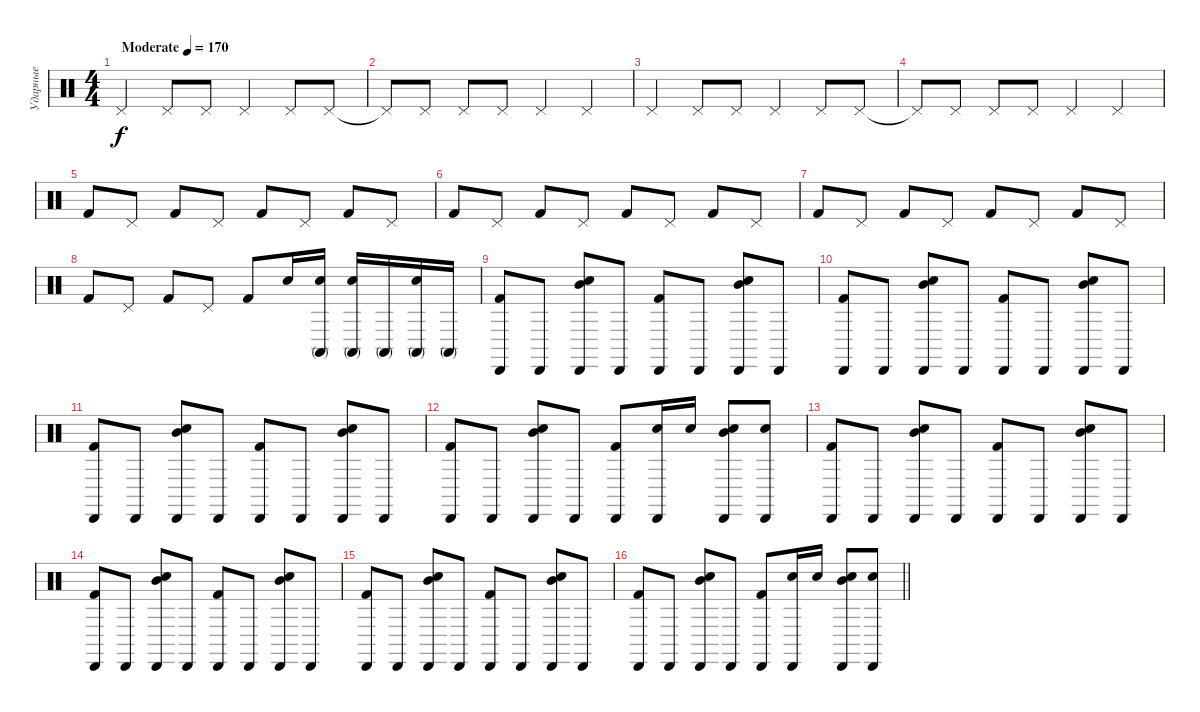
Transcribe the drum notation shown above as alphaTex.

\track ("Ударные" "Ударные") {instrument percussion}
\staff {score}
\articulation defaults
\ts (4 4)
\tempo (170 "Moderate")
\clef neutral
\ks c "Pedal Hi-Hat (hit)".4{dy f} "Pedal Hi-Hat (hit)".8 "Pedal Hi-Hat (hit)".8 "Pedal Hi-Hat (hit)".4 "Pedal Hi-Hat (hit)".8 "Pedal Hi-Hat (hit)".8
|
"Pedal Hi-Hat (hit)"{t}.8 "Pedal Hi-Hat (hit)".8 "Pedal Hi-Hat (hit)".8 "Pedal Hi-Hat (hit)".8 "Pedal Hi-Hat (hit)".4 "Pedal Hi-Hat (hit)".4 |
"Pedal Hi-Hat (hit)".4 "Pedal Hi-Hat (hit)".8 "Pedal Hi-Hat (hit)".8 "Pedal Hi-Hat (hit)".4 "Pedal Hi-Hat (hit)".8 "Pedal Hi-Hat (hit)".8 |
"Pedal Hi-Hat (hit)"{t}.8 "Pedal Hi-Hat (hit)".8 "Pedal Hi-Hat (hit)".8 "Pedal Hi-Hat (hit)".8 "Pedal Hi-Hat (hit)".4 "Pedal Hi-Hat (hit)".4 |
"Kick (hit) 2".8 "Pedal Hi-Hat (hit)".8 "Kick (hit) 2".8 "Pedal Hi-Hat (hit)".8 "Kick (hit) 2".8 "Pedal Hi-Hat (hit)".8 "Kick (hit) 2".8 "Pedal Hi-Hat (hit)".8 |
"Kick (hit) 2".8 "Pedal Hi-Hat (hit)".8 "Kick (hit) 2".8 "Pedal Hi-Hat (hit)".8 "Kick (hit) 2".8 "Pedal Hi-Hat (hit)".8 "Kick (hit) 2".8 "Pedal Hi-Hat (hit)".8 |
"Kick (hit) 2".8 "Pedal Hi-Hat (hit)".8 "Kick (hit) 2".8 "Pedal Hi-Hat (hit)".8 "Kick (hit) 2".8 "Pedal Hi-Hat (hit)".8 "Kick (hit) 2".8 "Pedal Hi-Hat (hit)".8 |
"Kick (hit) 2".8 "Pedal Hi-Hat (hit)".8 "Kick (hit) 2".8 "Pedal Hi-Hat (hit)".8 "Kick (hit) 2".8 "Electric Snare (hit)".16 ("Electric Snare (hit)" "Conga high (mute)").16 ("Electric Snare (hit)" "Conga high (mute)").16 "Conga high (mute)".16 ("Electric Snare (hit)" "Conga high (mute)").16 "Conga high (mute)".16 |
("Kick (hit) 2" "Cabasa (hit)").8 "Cabasa (hit)".8 ("Electric Snare (hit)" "Mid Tom (hit)" "Cabasa (hit)").8 "Cabasa (hit)".8 ("Cabasa (hit)" "Kick (hit) 2").8 "Cabasa (hit)".8 ("Cabasa (hit)" "Electric Snare (hit)" "Mid Tom (hit)").8 "Cabasa (hit)".8 |
("Cabasa (hit)" "Kick (hit) 2").8 "Cabasa (hit)".8 ("Electric Snare (hit)" "Cabasa (hit)" "Mid Tom (hit)").8 "Cabasa (hit)".8 ("Cabasa (hit)" "Kick (hit) 2").8 "Cabasa (hit)".8 ("Mid Tom (hit)" "Electric Snare (hit)" "Cabasa (hit)").8 "Cabasa (hit)".8 |
("Kick (hit) 2" "Cabasa (hit)").8 "Cabasa (hit)".8 ("Electric Snare (hit)" "Mid Tom (hit)" "Cabasa (hit)").8 "Cabasa (hit)".8 ("Cabasa (hit)" "Kick (hit) 2").8 "Cabasa (hit)".8 ("Cabasa (hit)" "Electric Snare (hit)" "Mid Tom (hit)").8 "Cabasa (hit)".8 |
("Cabasa (hit)" "Kick (hit) 2").8 "Cabasa (hit)".8 ("Electric Snare (hit)" "Cabasa (hit)" "Mid Tom (hit)").8 "Cabasa (hit)".8 ("Cabasa (hit)" "Kick (hit) 2").8 ("Electric Snare (hit)" "Cabasa (hit)").16 "Electric Snare (hit)".16 ("Electric Snare (hit)" "Mid Tom (hit)" "Cabasa (hit)").8 ("Electric Snare (hit)" "Cabasa (hit)").8 |
("Kick (hit) 2" "Cabasa (hit)").8 "Cabasa (hit)".8 ("Electric Snare (hit)" "Mid Tom (hit)" "Cabasa (hit)").8 "Cabasa (hit)".8 ("Cabasa (hit)" "Kick (hit) 2").8 "Cabasa (hit)".8 ("Cabasa (hit)" "Electric Snare (hit)" "Mid Tom (hit)").8 "Cabasa (hit)".8 |
("Cabasa (hit)" "Kick (hit) 2").8 "Cabasa (hit)".8 ("Electric Snare (hit)" "Cabasa (hit)" "Mid Tom (hit)").8 "Cabasa (hit)".8 ("Cabasa (hit)" "Kick (hit) 2").8 "Cabasa (hit)".8 ("Mid Tom (hit)" "Electric Snare (hit)" "Cabasa (hit)").8 "Cabasa (hit)".8 |
("Kick (hit) 2" "Cabasa (hit)").8 "Cabasa (hit)".8 ("Electric Snare (hit)" "Mid Tom (hit)" "Cabasa (hit)").8 "Cabasa (hit)".8 ("Cabasa (hit)" "Kick (hit) 2").8 "Cabasa (hit)".8 ("Cabasa (hit)" "Electric Snare (hit)" "Mid Tom (hit)").8 "Cabasa (hit)".8 |
\barLineRight lightlight
("Cabasa (hit)" "Kick (hit) 2").8 "Cabasa (hit)".8 ("Electric Snare (hit)" "Cabasa (hit)" "Mid Tom (hit)").8 "Cabasa (hit)".8 ("Cabasa (hit)" "Kick (hit) 2").8 ("Electric Snare (hit)" "Cabasa (hit)").16 "Electric Snare (hit)".16 ("Electric Snare (hit)" "Mid Tom (hit)" "Cabasa (hit)").8 ("Electric Snare (hit)" "Cabasa (hit)").8
